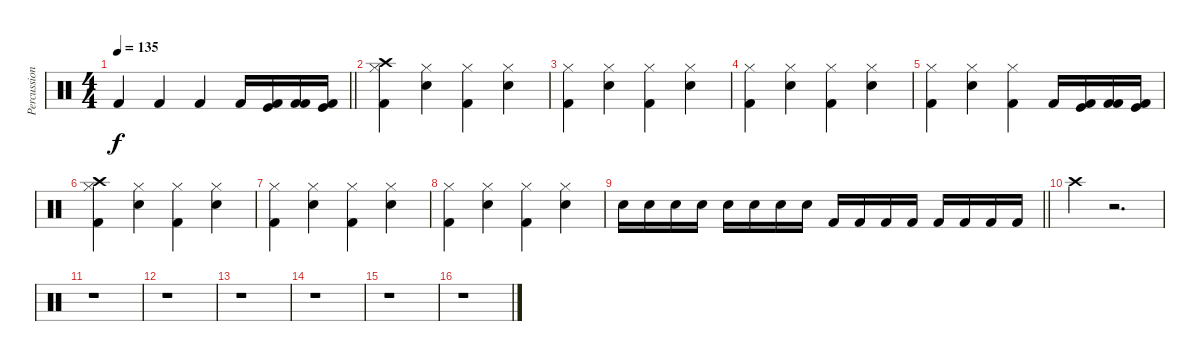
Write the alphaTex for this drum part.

\track ("Percussion" "Percussion") {instrument percussion}
\staff {score}
\articulation defaults
\ts (4 4)
\tempo 135
\clef neutral
\barLineRight lightlight
\ks c "Kick (hit) 2".4{dy f} "Kick (hit) 2".4 "Kick (hit) 2".4 "Kick (hit) 2".16
("Kick (hit)" "Kick (hit) 2").16 ("Kick (hit) 2" "Kick (hit) 2").16 ("Kick (hit)" "Kick (hit) 2").16 |
("Crash high (hit)" "Kick (hit) 2" "Hi-Hat (closed)").4 ("Snare (hit) 2" "Hi-Hat (closed)").4 ("Kick (hit) 2" "Hi-Hat (closed)").4 ("Snare (hit) 2" "Hi-Hat (closed)").4 |
("Kick (hit) 2" "Hi-Hat (closed)").4 ("Snare (hit) 2" "Hi-Hat (closed)").4 ("Kick (hit) 2" "Hi-Hat (closed)").4 ("Snare (hit) 2" "Hi-Hat (closed)").4 |
("Kick (hit) 2" "Hi-Hat (closed)").4 ("Snare (hit) 2" "Hi-Hat (closed)").4 ("Kick (hit) 2" "Hi-Hat (closed)").4 ("Snare (hit) 2" "Hi-Hat (closed)").4 |
("Kick (hit) 2" "Hi-Hat (closed)").4 ("Snare (hit) 2" "Hi-Hat (closed)").4 ("Kick (hit) 2" "Hi-Hat (closed)").4 "Kick (hit) 2".16 ("Kick (hit)" "Kick (hit) 2").16 ("Kick (hit) 2" "Kick (hit) 2").16 ("Kick (hit)" "Kick (hit) 2").16 |
("Crash high (hit)" "Kick (hit) 2" "Hi-Hat (closed)").4 ("Snare (hit) 2" "Hi-Hat (closed)").4 ("Kick (hit) 2" "Hi-Hat (closed)").4 ("Snare (hit) 2" "Hi-Hat (closed)").4 |
("Kick (hit) 2" "Hi-Hat (closed)").4 ("Snare (hit) 2" "Hi-Hat (closed)").4 ("Kick (hit) 2" "Hi-Hat (closed)").4 ("Snare (hit) 2" "Hi-Hat (closed)").4 |
("Kick (hit) 2" "Hi-Hat (closed)").4 ("Snare (hit) 2" "Hi-Hat (closed)").4 ("Kick (hit) 2" "Hi-Hat (closed)").4 ("Snare (hit) 2" "Hi-Hat (closed)").4 |
\barLineRight lightlight "Snare (hit) 2".16 "Snare (hit) 2".16 "Snare (hit) 2".16 "Snare (hit) 2".16 "Snare (hit) 2".16 "Snare (hit) 2".16 "Snare (hit) 2".16 "Snare (hit) 2".16 "Kick (hit) 2".16 "Kick (hit) 2".16 "Kick (hit) 2".16 "Kick (hit) 2".16 "Kick (hit) 2".16 "Kick (hit) 2".16 "Kick (hit) 2".16 "Kick (hit) 2".16
|
"Crash high (hit)".4 r.2{d} |
r.1 |
r.1 |
r.1 |
r.1 |
r.1 |
r.1
